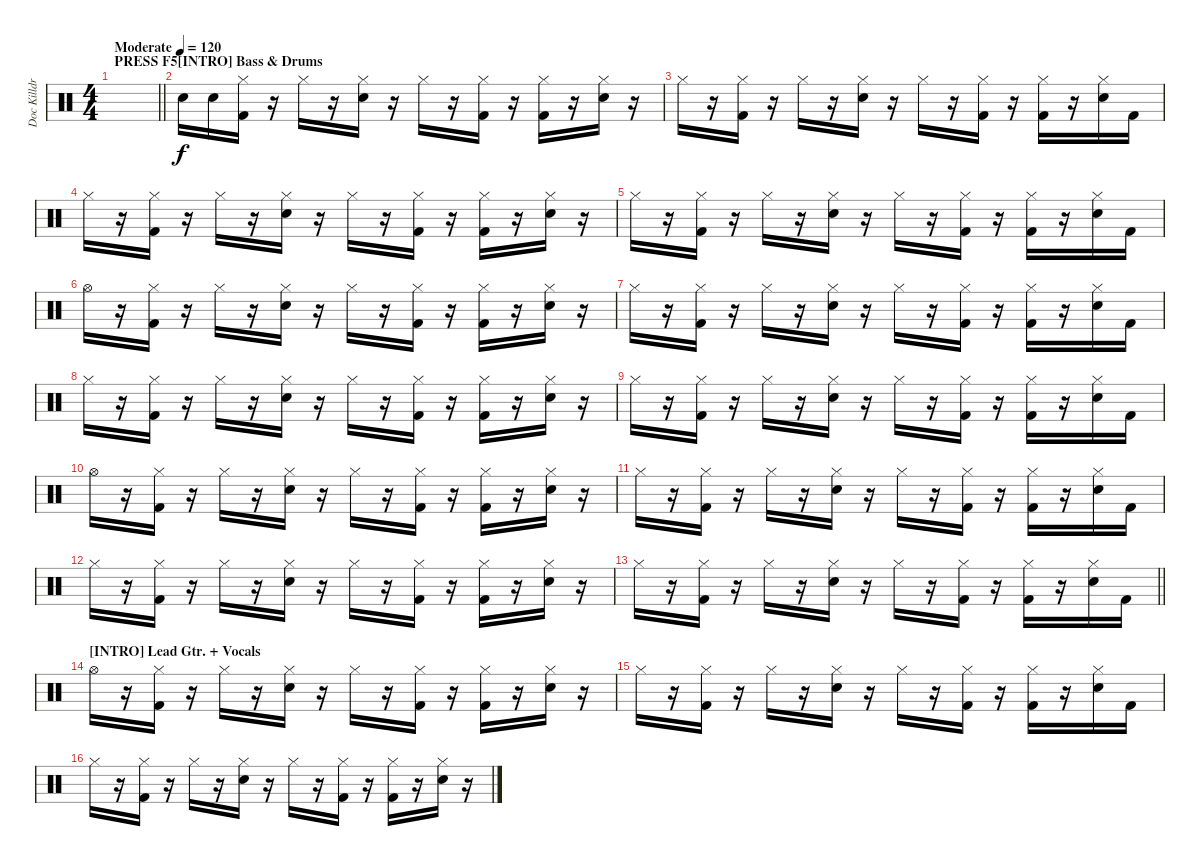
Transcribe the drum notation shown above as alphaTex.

\track ("Doc Killdrums (What else?)" "Doc Killdr") {instrument percussion}
\staff {score}
\articulation defaults
\ts (4 4)
\section ("" "PRESS F5")
\tempo (120 "Moderate")
\clef neutral
\barLineRight lightlight
\ks c
|
\section ("" "[INTRO] Bass & Drums")
"Snare (hit) 2".16 "Snare (hit) 2".16 ("Kick (hit) 2" "Hi-Hat (closed)").16 r.16 "Hi-Hat (closed)".16 r.16 ("Snare (hit) 2" "Hi-Hat (closed)").16 r.16 "Hi-Hat (closed)".16 r.16 ("Kick (hit) 2" "Hi-Hat (closed)").16 r.16 ("Kick (hit) 2" "Hi-Hat (closed)").16 r.16 ("Snare (hit) 2" "Hi-Hat (closed)").16 r.16 |
"Hi-Hat (closed)".16 r.16 ("Kick (hit) 2" "Hi-Hat (closed)").16 r.16 "Hi-Hat (closed)".16 r.16 ("Snare (hit) 2" "Hi-Hat (closed)").16 r.16 "Hi-Hat (closed)".16 r.16 ("Kick (hit) 2" "Hi-Hat (closed)").16 r.16 ("Kick (hit) 2" "Hi-Hat (closed)").16 r.16 ("Snare (hit) 2" "Hi-Hat (closed)").16 "Kick (hit) 2".16 |
"Hi-Hat (closed)".16 r.16 ("Kick (hit) 2" "Hi-Hat (closed)").16 r.16 "Hi-Hat (closed)".16 r.16 ("Snare (hit) 2" "Hi-Hat (closed)").16 r.16 "Hi-Hat (closed)".16 r.16 ("Kick (hit) 2" "Hi-Hat (closed)").16 r.16 ("Kick (hit) 2" "Hi-Hat (closed)").16 r.16 ("Snare (hit) 2" "Hi-Hat (closed)").16 r.16 |
"Hi-Hat (closed)".16 r.16 ("Kick (hit) 2" "Hi-Hat (closed)").16 r.16 "Hi-Hat (closed)".16 r.16 ("Snare (hit) 2" "Hi-Hat (closed)").16 r.16 "Hi-Hat (closed)".16 r.16 ("Kick (hit) 2" "Hi-Hat (closed)").16 r.16 ("Kick (hit) 2" "Hi-Hat (closed)").16 r.16 ("Snare (hit) 2" "Hi-Hat (closed)").16 "Kick (hit) 2".16 |
"Hi-Hat (open)".16 r.16 ("Kick (hit) 2" "Hi-Hat (closed)").16 r.16 "Hi-Hat (closed)".16 r.16 ("Snare (hit) 2" "Hi-Hat (closed)").16 r.16 "Hi-Hat (closed)".16 r.16 ("Kick (hit) 2" "Hi-Hat (closed)").16 r.16 ("Kick (hit) 2" "Hi-Hat (closed)").16 r.16 ("Snare (hit) 2" "Hi-Hat (closed)").16 r.16 |
"Hi-Hat (closed)".16 r.16 ("Kick (hit) 2" "Hi-Hat (closed)").16 r.16 "Hi-Hat (closed)".16 r.16 ("Snare (hit) 2" "Hi-Hat (closed)").16 r.16 "Hi-Hat (closed)".16 r.16 ("Kick (hit) 2" "Hi-Hat (closed)").16 r.16 ("Kick (hit) 2" "Hi-Hat (closed)").16 r.16 ("Snare (hit) 2" "Hi-Hat (closed)").16 "Kick (hit) 2".16 |
"Hi-Hat (closed)".16 r.16 ("Kick (hit) 2" "Hi-Hat (closed)").16 r.16 "Hi-Hat (closed)".16 r.16 ("Snare (hit) 2" "Hi-Hat (closed)").16 r.16 "Hi-Hat (closed)".16 r.16 ("Kick (hit) 2" "Hi-Hat (closed)").16 r.16 ("Kick (hit) 2" "Hi-Hat (closed)").16 r.16 ("Snare (hit) 2" "Hi-Hat (closed)").16 r.16 |
"Hi-Hat (closed)".16 r.16 ("Kick (hit) 2" "Hi-Hat (closed)").16 r.16 "Hi-Hat (closed)".16 r.16 ("Snare (hit) 2" "Hi-Hat (closed)").16 r.16 "Hi-Hat (closed)".16 r.16 ("Kick (hit) 2" "Hi-Hat (closed)").16 r.16 ("Kick (hit) 2" "Hi-Hat (closed)").16 r.16 ("Snare (hit) 2" "Hi-Hat (closed)").16 "Kick (hit) 2".16 |
"Hi-Hat (open)".16 r.16 ("Kick (hit) 2" "Hi-Hat (closed)").16 r.16 "Hi-Hat (closed)".16 r.16 ("Snare (hit) 2" "Hi-Hat (closed)").16 r.16 "Hi-Hat (closed)".16 r.16 ("Kick (hit) 2" "Hi-Hat (closed)").16 r.16 ("Kick (hit) 2" "Hi-Hat (closed)").16 r.16 ("Snare (hit) 2" "Hi-Hat (closed)").16 r.16 |
"Hi-Hat (closed)".16 r.16 ("Kick (hit) 2" "Hi-Hat (closed)").16 r.16 "Hi-Hat (closed)".16 r.16 ("Snare (hit) 2" "Hi-Hat (closed)").16 r.16 "Hi-Hat (closed)".16 r.16 ("Kick (hit) 2" "Hi-Hat (closed)").16 r.16 ("Kick (hit) 2" "Hi-Hat (closed)").16 r.16 ("Snare (hit) 2" "Hi-Hat (closed)").16 "Kick (hit) 2".16 |
"Hi-Hat (closed)".16 r.16 ("Kick (hit) 2" "Hi-Hat (closed)").16 r.16 "Hi-Hat (closed)".16 r.16 ("Snare (hit) 2" "Hi-Hat (closed)").16 r.16 "Hi-Hat (closed)".16 r.16 ("Kick (hit) 2" "Hi-Hat (closed)").16 r.16 ("Kick (hit) 2" "Hi-Hat (closed)").16 r.16 ("Snare (hit) 2" "Hi-Hat (closed)").16 r.16 |
\barLineRight lightlight "Hi-Hat (closed)".16
r.16 ("Kick (hit) 2" "Hi-Hat (closed)").16 r.16 "Hi-Hat (closed)".16 r.16 ("Snare (hit) 2" "Hi-Hat (closed)").16 r.16 "Hi-Hat (closed)".16 r.16 ("Kick (hit) 2" "Hi-Hat (closed)").16 r.16 ("Kick (hit) 2" "Hi-Hat (closed)").16 r.16 ("Snare (hit) 2" "Hi-Hat (closed)").16 "Kick (hit) 2".16 |
\section ("" "[INTRO] Lead Gtr. + Vocals")
"Hi-Hat (open)".16 r.16 ("Kick (hit) 2" "Hi-Hat (closed)").16 r.16 "Hi-Hat (closed)".16 r.16 ("Snare (hit) 2" "Hi-Hat (closed)").16 r.16 "Hi-Hat (closed)".16 r.16 ("Kick (hit) 2" "Hi-Hat (closed)").16 r.16 ("Kick (hit) 2" "Hi-Hat (closed)").16 r.16 ("Snare (hit) 2" "Hi-Hat (closed)").16 r.16 |
"Hi-Hat (closed)".16 r.16 ("Kick (hit) 2" "Hi-Hat (closed)").16 r.16 "Hi-Hat (closed)".16 r.16 ("Snare (hit) 2" "Hi-Hat (closed)").16 r.16 "Hi-Hat (closed)".16 r.16 ("Kick (hit) 2" "Hi-Hat (closed)").16 r.16 ("Kick (hit) 2" "Hi-Hat (closed)").16 r.16 ("Snare (hit) 2" "Hi-Hat (closed)").16 "Kick (hit) 2".16 |
"Hi-Hat (closed)".16 r.16 ("Kick (hit) 2" "Hi-Hat (closed)").16 r.16 "Hi-Hat (closed)".16 r.16 ("Snare (hit) 2" "Hi-Hat (closed)").16 r.16 "Hi-Hat (closed)".16 r.16 ("Kick (hit) 2" "Hi-Hat (closed)").16 r.16 ("Kick (hit) 2" "Hi-Hat (closed)").16 r.16 ("Snare (hit) 2" "Hi-Hat (closed)").16 r.16
